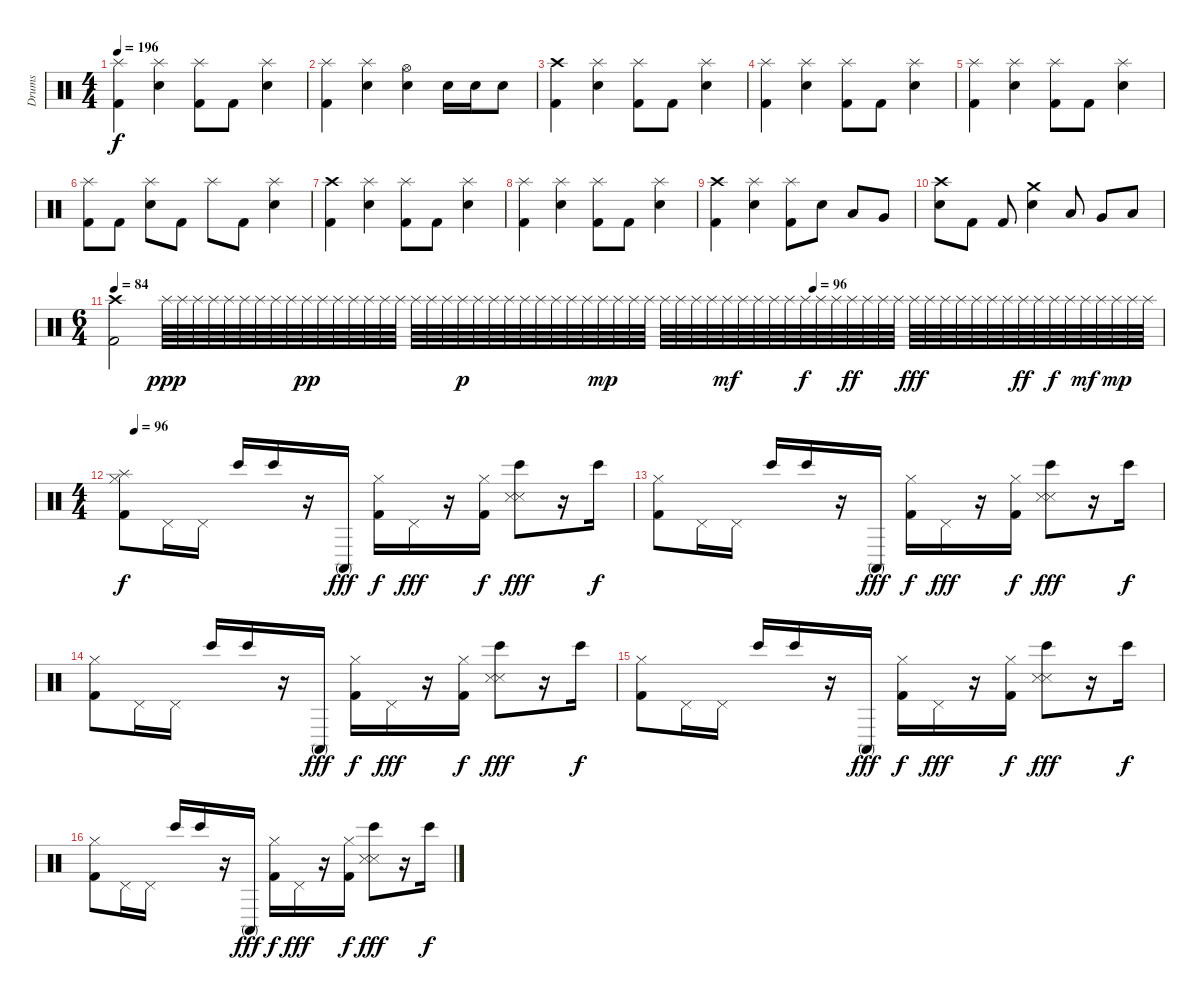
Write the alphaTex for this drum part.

\track ("Drums" "Drums") {instrument percussion}
\staff {score}
\articulation defaults
\ts (4 4)
\tempo 196
\clef neutral
\ks c
("Splash (hit)" "Kick (hit) 2").4{dy f} ("Splash (hit)" "Snare (hit) 2").4 ("Splash (hit)" "Kick (hit) 2").8 "Kick (hit) 2".8 ("Splash (hit)" "Snare (hit) 2").4 |
("Splash (hit)" "Kick (hit) 2").4 ("Splash (hit)" "Snare (hit) 2").4 ("Hi-Hat (open)" "Snare (hit) 2").4 "Snare (hit) 2".16 "Snare (hit) 2".16 "Snare (hit) 2".8 |
("Crash high (hit)" "Kick (hit) 2").4 ("Splash (hit)" "Snare (hit) 2").4 ("Splash (hit)" "Kick (hit) 2").8 "Kick (hit) 2".8 ("Splash (hit)" "Snare (hit) 2").4 |
("Splash (hit)" "Kick (hit) 2").4 ("Splash (hit)" "Snare (hit) 2").4 ("Splash (hit)" "Kick (hit) 2").8 "Kick (hit) 2".8 ("Splash (hit)" "Snare (hit) 2").4 |
("Splash (hit)" "Kick (hit) 2").4 ("Splash (hit)" "Snare (hit) 2").4 ("Splash (hit)" "Kick (hit) 2").8 "Kick (hit) 2".8 ("Splash (hit)" "Snare (hit) 2").4 |
("Splash (hit)" "Kick (hit) 2").8 "Kick (hit) 2".8 ("Splash (hit)" "Snare (hit) 2").8 "Kick (hit) 2".8 "Splash (hit)".8 "Kick (hit) 2".8 ("Splash (hit)" "Snare (hit) 2").4 |
("Crash high (hit)" "Kick (hit) 2").4 ("Splash (hit)" "Snare (hit) 2").4 ("Splash (hit)" "Kick (hit) 2").8 "Kick (hit) 2".8 ("Splash (hit)" "Snare (hit) 2").4 |
("Splash (hit)" "Kick (hit) 2").4 ("Splash (hit)" "Snare (hit) 2").4 ("Splash (hit)" "Kick (hit) 2").8 "Kick (hit) 2".8 ("Splash (hit)" "Snare (hit) 2").4 |
("Crash high (hit)" "Kick (hit) 2").4 ("Splash (hit)" "Snare (hit) 2").4 ("Splash (hit)" "Kick (hit) 2").8 "Snare (hit) 2".8 "Low Tom (hit)".8 "Very Low Tom (hit)".8 |
("Crash high (hit)" "Snare (hit) 2").8 "Kick (hit) 2".8 "Kick (hit) 2".8 ("Crash medium (hit)" "Snare (hit) 2").4 "Low Tom (hit)".8 "Very Low Tom (hit)".8 "Low Floor Tom (hit)".8 |
\ts (6 4)
\tempo 84
\tempo (96 0.6666666666666666)
("Crash high (hit)" "Kick (hit) 2").2 "Splash (hit)".64{dy ppp} "Splash (hit)".64 "Splash (hit)".64 "Splash (hit)".64 "Splash (hit)".64 "Splash (hit)".64 "Splash (hit)".64 "Splash (hit)".64 "Splash (hit)".64 "Splash (hit)".64{dy pp} "Splash (hit)".64 "Splash (hit)".64 "Splash (hit)".64 "Splash (hit)".64 "Splash (hit)".64 "Splash (hit)".64 "Splash (hit)".64 "Splash (hit)".64 "Splash (hit)".64 "Splash (hit)".64{dy p} "Splash (hit)".64 "Splash (hit)".64 "Splash (hit)".64 "Splash (hit)".64 "Splash (hit)".64 "Splash (hit)".64 "Splash (hit)".64 "Splash (hit)".64 "Splash (hit)".64{dy mp} "Splash (hit)".64 "Splash (hit)".64 "Splash (hit)".64 "Splash (hit)".64 "Splash (hit)".64 "Splash (hit)".64 "Splash (hit)".64 "Splash (hit)".64{dy mf} "Splash (hit)".64 "Splash (hit)".64 "Splash (hit)".64 "Splash (hit)".64 "Splash (hit)".64{dy f} "Splash (hit)".64 "Splash (hit)".64 "Splash (hit)".64{dy ff} "Splash (hit)".64 "Splash (hit)".64 "Splash (hit)".64 "Splash (hit)".64{dy fff} "Splash (hit)".64 "Splash (hit)".64 "Splash (hit)".64 "Splash (hit)".64 "Splash (hit)".64 "Splash (hit)".64 "Splash (hit)".64{dy ff} "Splash (hit)".64 "Splash (hit)".64{dy f} "Splash (hit)".64 "Splash (hit)".64{dy mf} "Splash (hit)".64 "Splash (hit)".64{dy mp} "Splash (hit)".64 "Splash (hit)".64 |
\ts (4 4)
\tempo (96 0.03125)
("Splash (hit)" "Kick (hit) 2" "Hi-Hat (closed)").8{dy f} "Pedal Hi-Hat (hit)".16 "Pedal Hi-Hat (hit)".16 "Bongo High (hit)".16 "Bongo High (hit)".16 r.16 "Conga high (mute)".16{dy fff} ("Kick (hit) 2" "Hi-Hat (closed)").16{dy f} "Pedal Hi-Hat (hit)".16{dy fff} r.16 ("Kick (hit) 2" "Hi-Hat (closed)").16{dy f} ("Bongo High (hit)" "Snare (side stick) 3" "Metronome (hit)").8{dy fff} r.16 "Bongo High (hit)".16{dy f} |
("Kick (hit) 2" "Hi-Hat (closed)").8 "Pedal Hi-Hat (hit)".16 "Pedal Hi-Hat (hit)".16 "Bongo High (hit)".16 "Bongo High (hit)".16 r.16 "Conga high (mute)".16{dy fff} ("Kick (hit) 2" "Hi-Hat (closed)").16{dy f} "Pedal Hi-Hat (hit)".16{dy fff} r.16 ("Kick (hit) 2" "Hi-Hat (closed)").16{dy f} ("Bongo High (hit)" "Snare (side stick) 3" "Metronome (hit)").8{dy fff} r.16 "Bongo High (hit)".16{dy f} |
("Kick (hit) 2" "Hi-Hat (closed)").8 "Pedal Hi-Hat (hit)".16 "Pedal Hi-Hat (hit)".16 "Bongo High (hit)".16 "Bongo High (hit)".16 r.16 "Conga high (mute)".16{dy fff} ("Kick (hit) 2" "Hi-Hat (closed)").16{dy f} "Pedal Hi-Hat (hit)".16{dy fff} r.16 ("Kick (hit) 2" "Hi-Hat (closed)").16{dy f} ("Bongo High (hit)" "Snare (side stick) 3" "Metronome (hit)").8{dy fff} r.16 "Bongo High (hit)".16{dy f} |
("Kick (hit) 2" "Hi-Hat (closed)").8 "Pedal Hi-Hat (hit)".16 "Pedal Hi-Hat (hit)".16 "Bongo High (hit)".16 "Bongo High (hit)".16 r.16 "Conga high (mute)".16{dy fff} ("Kick (hit) 2" "Hi-Hat (closed)").16{dy f} "Pedal Hi-Hat (hit)".16{dy fff} r.16 ("Kick (hit) 2" "Hi-Hat (closed)").16{dy f} ("Bongo High (hit)" "Snare (side stick) 3" "Metronome (hit)").8{dy fff} r.16 "Bongo High (hit)".16{dy f} |
("Kick (hit) 2" "Hi-Hat (closed)").8 "Pedal Hi-Hat (hit)".16 "Pedal Hi-Hat (hit)".16 "Bongo High (hit)".16 "Bongo High (hit)".16 r.16 "Conga high (mute)".16{dy fff} ("Kick (hit) 2" "Hi-Hat (closed)").16{dy f} "Pedal Hi-Hat (hit)".16{dy fff} r.16 ("Kick (hit) 2" "Hi-Hat (closed)").16{dy f} ("Bongo High (hit)" "Snare (side stick) 3" "Metronome (hit)").8{dy fff} r.16 "Bongo High (hit)".16{dy f}
